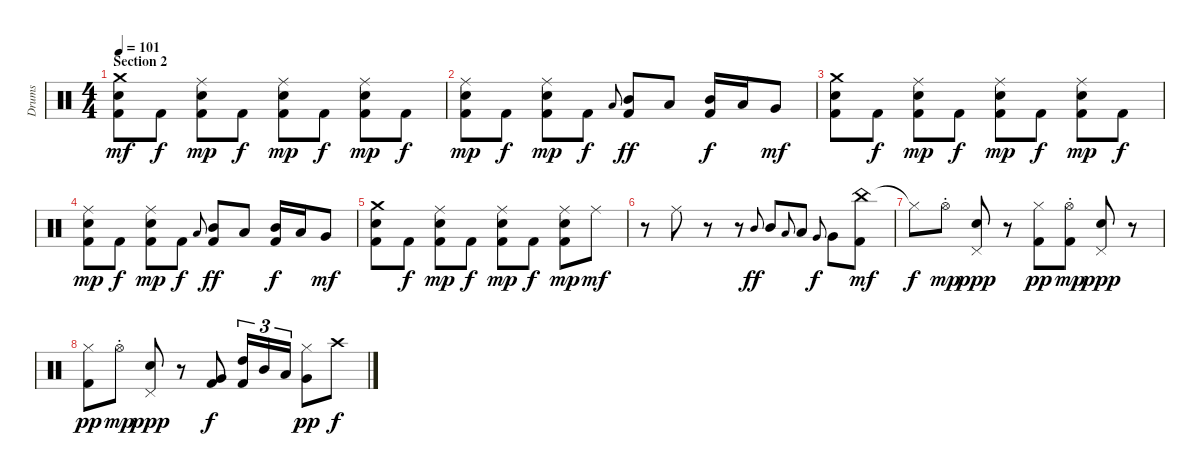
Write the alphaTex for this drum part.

\track ("Drums" "Drums") {instrument percussion}
\staff {score}
\articulation defaults
\ts (4 4)
\section ("" "Section 2")
\tempo 101
\clef neutral
\ks c
("Crash medium (hit)" "Snare (hit) 2" "Kick (hit) 2").8{dy mf} "Kick (hit) 2".8{dy f} ("Ride (middle)" "Snare (hit) 2" "Kick (hit) 2").8{dy mp} "Kick (hit) 2".8{dy f} ("Ride (middle)" "Snare (hit) 2" "Kick (hit) 2").8{dy mp} "Kick (hit) 2".8{dy f} ("Ride (middle)" "Snare (hit) 2" "Kick (hit) 2").8{dy mp} "Kick (hit) 2".8{dy f} |
("Ride (middle)" "Snare (hit) 2" "Kick (hit) 2").8{dy mp} "Kick (hit) 2".8{dy f} ("Ride (middle)" "Snare (hit) 2" "Kick (hit) 2").8{dy mp} "Kick (hit) 2".8{dy f} "Low Tom (hit)".8{gr onbeat} ("Mid Tom (hit)" "Kick (hit) 2").8{dy ff} "Low Tom (hit)".8 ("Mid Tom (hit)" "Kick (hit) 2").16{dy f} "Low Tom (hit)".16 "Very Low Tom (hit)".8{dy mf} |
("Crash medium (hit)" "Snare (hit) 2" "Kick (hit) 2").8 "Kick (hit) 2".8{dy f} ("Ride (middle)" "Snare (hit) 2" "Kick (hit) 2").8{dy mp} "Kick (hit) 2".8{dy f} ("Ride (middle)" "Snare (hit) 2" "Kick (hit) 2").8{dy mp} "Kick (hit) 2".8{dy f} ("Ride (middle)" "Snare (hit) 2" "Kick (hit) 2").8{dy mp} "Kick (hit) 2".8{dy f} |
("Ride (middle)" "Snare (hit) 2" "Kick (hit) 2").8{dy mp} "Kick (hit) 2".8{dy f} ("Ride (middle)" "Snare (hit) 2" "Kick (hit) 2").8{dy mp} "Kick (hit) 2".8{dy f} "Low Tom (hit)".8{gr onbeat} ("Mid Tom (hit)" "Kick (hit) 2").8{dy ff} "Low Tom (hit)".8 ("Mid Tom (hit)" "Kick (hit) 2").16{dy f} "Low Tom (hit)".16 "Very Low Tom (hit)".8{dy mf} |
("Crash medium (hit)" "Snare (hit) 2" "Kick (hit) 2").8 "Kick (hit) 2".8{dy f} ("Ride (middle)" "Snare (hit) 2" "Kick (hit) 2").8{dy mp} "Kick (hit) 2".8{dy f} ("Ride (middle)" "Snare (hit) 2" "Kick (hit) 2").8{dy mp} "Kick (hit) 2".8{dy f} ("Ride (middle)" "Snare (hit) 2" "Kick (hit) 2").8{dy mp} "Ride (middle)".8{dy mf} |
r.8 "Ride (middle)".8 r.8 r.8 "Mid Tom (hit)".8{gr onbeat dy ff} "Mid Tom (hit)".8 "Low Tom (hit)".8{gr onbeat} "Low Tom (hit)".8 "Very Low Tom (hit)".8{gr onbeat dy f} "Very Low Tom (hit)".8 ("China (hit)" "Kick (hit) 2").8{dy mf} |
"Hi-Hat (closed)"{t}.8{dy f} "Hi-Hat (open)"{st}.8{dy mp} ("Pedal Hi-Hat (hit)" "Snare (hit) 2").8{dy ppp} r.8 ("Hi-Hat (closed)" "Kick (hit) 2").8{dy pp} ("Hi-Hat (open)"{st} "Kick (hit) 2").8{dy mp} ("Pedal Hi-Hat (hit)" "Snare (hit) 2").8{dy ppp} r.8 |
("Hi-Hat (closed)" "Kick (hit) 2").8{dy pp} "Hi-Hat (open)"{st}.8{dy mp} ("Pedal Hi-Hat (hit)" "Snare (hit) 2").8{dy ppp} r.8 ("Very Low Tom (hit)" "Kick (hit) 2").8{dy f} ("High Tom (hit)" "Kick (hit) 2").16{tu (3 2)} "Mid Tom (hit)".16{tu (3 2)} "Low Tom (hit)".16{tu (3 2)} ("Hi-Hat (closed)" "Very Low Tom (hit)").8{dy pp} "Crash high (hit)".8{dy f}
